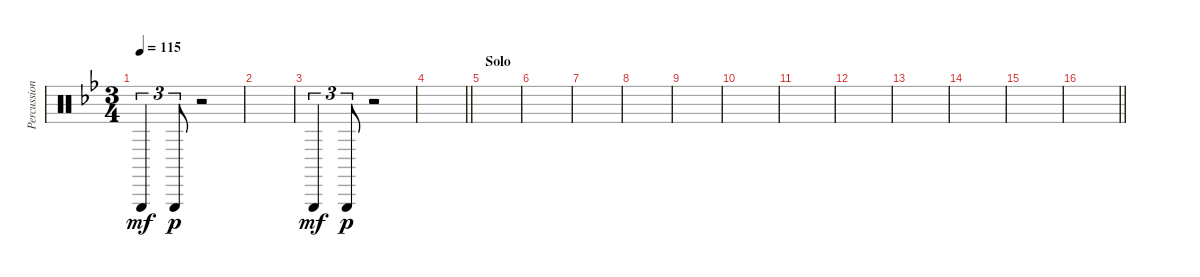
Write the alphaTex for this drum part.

\track ("Percussion" "Percussion") {instrument percussion}
\staff {score}
\articulation defaults
\ts (3 4)
\tempo 115
\clef neutral
\ks gminor "Triangle (hit)".4{tu (3 2) dy mf} "Triangle (hit)".8{tu (3 2) dy p}
r.2 |
|
"Triangle (hit)".4{tu (3 2) dy mf} "Triangle (hit)".8{tu (3 2) dy p} r.2 |
\barLineRight lightlight
|
\section ("" "Solo")
|
|
|
|
|
|
|
|
|
|
|
\barLineRight lightlight
